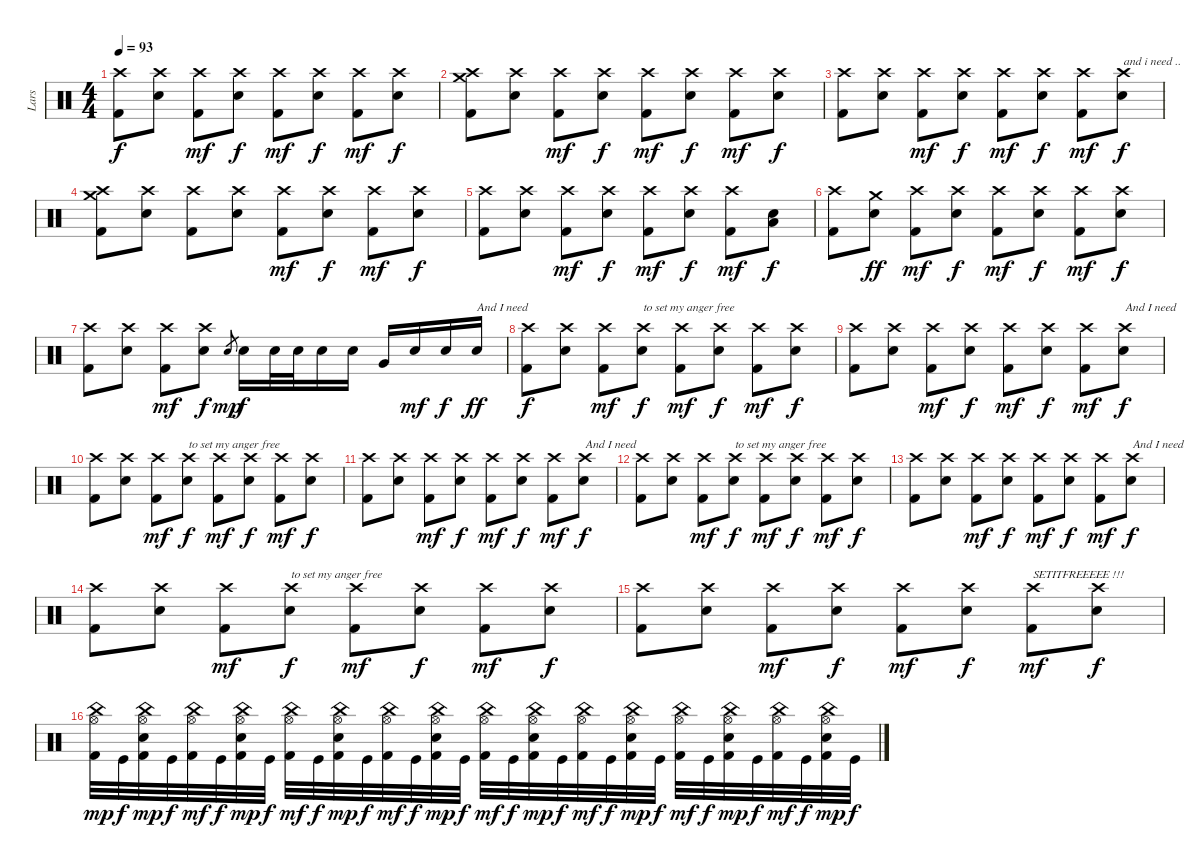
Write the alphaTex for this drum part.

\track ("Lars" "Lars") {instrument percussion}
\staff {score}
\articulation defaults
\ts (4 4)
\tempo 93
\clef neutral
\ks c
("Crash high (hit)" "Kick (hit) 2").8{dy f} ("Crash high (hit)" "Snare (hit) 2").8 ("Crash high (hit)" "Kick (hit) 2").8{dy mf} ("Crash high (hit)" "Snare (hit) 2").8{dy f} ("Crash high (hit)" "Kick (hit) 2").8{dy mf} ("Crash high (hit)" "Snare (hit) 2").8{dy f} ("Crash high (hit)" "Kick (hit) 2").8{dy mf} ("Crash high (hit)" "Snare (hit) 2").8{dy f} |
("Crash high (hit)" "Crash medium (hit)" "Kick (hit) 2").8 ("Crash high (hit)" "Snare (hit) 2").8 ("Crash high (hit)" "Kick (hit) 2").8{dy mf} ("Crash high (hit)" "Snare (hit) 2").8{dy f} ("Crash high (hit)" "Kick (hit) 2").8{dy mf} ("Crash high (hit)" "Snare (hit) 2").8{dy f} ("Crash high (hit)" "Kick (hit) 2").8{dy mf} ("Crash high (hit)" "Snare (hit) 2").8{dy f} |
("Crash high (hit)" "Kick (hit) 2").8 ("Crash high (hit)" "Snare (hit) 2").8 ("Crash high (hit)" "Kick (hit) 2").8{dy mf} ("Crash high (hit)" "Snare (hit) 2").8{dy f} ("Crash high (hit)" "Kick (hit) 2").8{dy mf} ("Crash high (hit)" "Snare (hit) 2").8{dy f} ("Crash high (hit)" "Kick (hit) 2").8{dy mf} ("Crash high (hit)" "Snare (hit) 2").8{txt "and i need .." dy f} |
("Crash high (hit)" "Crash medium (hit)" "Kick (hit) 2").8 ("Crash high (hit)" "Snare (hit) 2").8 ("Crash high (hit)" "Kick (hit) 2").8 ("Crash high (hit)" "Snare (hit) 2").8 ("Crash high (hit)" "Kick (hit) 2").8{dy mf} ("Crash high (hit)" "Snare (hit) 2").8{dy f} ("Crash high (hit)" "Kick (hit) 2").8{dy mf} ("Crash high (hit)" "Snare (hit) 2").8{dy f} |
("Crash high (hit)" "Kick (hit) 2").8 ("Crash high (hit)" "Snare (hit) 2").8 ("Crash high (hit)" "Kick (hit) 2").8{dy mf} ("Crash high (hit)" "Snare (hit) 2").8{dy f} ("Crash high (hit)" "Kick (hit) 2").8{dy mf} ("Crash high (hit)" "Snare (hit) 2").8{dy f} ("Crash high (hit)" "Kick (hit) 2").8{dy mf} ("Snare (hit) 2" "Low Floor Tom (hit)").8{dy f} |
("Crash high (hit)" "Kick (hit) 2").8 ("Crash medium (hit)" "Snare (hit) 2").8{dy ff} ("Crash high (hit)" "Kick (hit) 2").8{dy mf} ("Crash high (hit)" "Snare (hit) 2").8{dy f} ("Crash high (hit)" "Kick (hit) 2").8{dy mf} ("Crash high (hit)" "Snare (hit) 2").8{dy f} ("Crash high (hit)" "Kick (hit) 2").8{dy mf} ("Crash high (hit)" "Snare (hit) 2").8{dy f} |
("Crash high (hit)" "Kick (hit) 2").8 ("Crash high (hit)" "Snare (hit) 2").8 ("Crash high (hit)" "Kick (hit) 2").8{dy mf} ("Crash high (hit)" "Snare (hit) 2").8{dy f} "Snare (hit) 2".8{gr dy mp} "Snare (hit) 2".16{dy f} "Snare (hit) 2".32 "Snare (hit) 2".32 "Snare (hit) 2".16 "Snare (hit) 2".16 "Very Low Tom (hit)".16 "Snare (hit) 2".16{dy mf} "Snare (hit) 2".16{dy f} "Snare (hit) 2".16{txt "And I need" dy ff} |
("Crash high (hit)" "Kick (hit) 2").8{dy f} ("Crash high (hit)" "Snare (hit) 2").8 ("Crash high (hit)" "Kick (hit) 2").8{dy mf} ("Crash high (hit)" "Snare (hit) 2").8{txt "to set my anger free" dy f} ("Crash high (hit)" "Kick (hit) 2").8{dy mf} ("Crash high (hit)" "Snare (hit) 2").8{dy f} ("Crash high (hit)" "Kick (hit) 2").8{dy mf} ("Crash high (hit)" "Snare (hit) 2").8{dy f} |
("Crash high (hit)" "Kick (hit) 2").8 ("Crash high (hit)" "Snare (hit) 2").8 ("Crash high (hit)" "Kick (hit) 2").8{dy mf} ("Crash high (hit)" "Snare (hit) 2").8{dy f} ("Crash high (hit)" "Kick (hit) 2").8{dy mf} ("Crash high (hit)" "Snare (hit) 2").8{dy f} ("Crash high (hit)" "Kick (hit) 2").8{dy mf} ("Crash high (hit)" "Snare (hit) 2").8{txt "And I need" dy f} |
("Crash high (hit)" "Kick (hit) 2").8 ("Crash high (hit)" "Snare (hit) 2").8 ("Crash high (hit)" "Kick (hit) 2").8{dy mf} ("Crash high (hit)" "Snare (hit) 2").8{txt "to set my anger free" dy f} ("Crash high (hit)" "Kick (hit) 2").8{dy mf} ("Crash high (hit)" "Snare (hit) 2").8{dy f} ("Crash high (hit)" "Kick (hit) 2").8{dy mf} ("Crash high (hit)" "Snare (hit) 2").8{dy f} |
("Crash high (hit)" "Kick (hit) 2").8 ("Crash high (hit)" "Snare (hit) 2").8 ("Crash high (hit)" "Kick (hit) 2").8{dy mf} ("Crash high (hit)" "Snare (hit) 2").8{dy f} ("Crash high (hit)" "Kick (hit) 2").8{dy mf} ("Crash high (hit)" "Snare (hit) 2").8{dy f} ("Crash high (hit)" "Kick (hit) 2").8{dy mf} ("Crash high (hit)" "Snare (hit) 2").8{txt "And I need" dy f} |
("Crash high (hit)" "Kick (hit) 2").8 ("Crash high (hit)" "Snare (hit) 2").8 ("Crash high (hit)" "Kick (hit) 2").8{dy mf} ("Crash high (hit)" "Snare (hit) 2").8{txt "to set my anger free" dy f} ("Crash high (hit)" "Kick (hit) 2").8{dy mf} ("Crash high (hit)" "Snare (hit) 2").8{dy f} ("Crash high (hit)" "Kick (hit) 2").8{dy mf} ("Crash high (hit)" "Snare (hit) 2").8{dy f} |
("Crash high (hit)" "Kick (hit) 2").8 ("Crash high (hit)" "Snare (hit) 2").8 ("Crash high (hit)" "Kick (hit) 2").8{dy mf} ("Crash high (hit)" "Snare (hit) 2").8{dy f} ("Crash high (hit)" "Kick (hit) 2").8{dy mf} ("Crash high (hit)" "Snare (hit) 2").8{dy f} ("Crash high (hit)" "Kick (hit) 2").8{dy mf} ("Crash high (hit)" "Snare (hit) 2").8{txt "And I need" dy f} |
("Crash high (hit)" "Kick (hit) 2").8 ("Crash high (hit)" "Snare (hit) 2").8 ("Crash high (hit)" "Kick (hit) 2").8{dy mf} ("Crash high (hit)" "Snare (hit) 2").8{txt "to set my anger free" dy f} ("Crash high (hit)" "Kick (hit) 2").8{dy mf} ("Crash high (hit)" "Snare (hit) 2").8{dy f} ("Crash high (hit)" "Kick (hit) 2").8{dy mf} ("Crash high (hit)" "Snare (hit) 2").8{dy f} |
("Crash high (hit)" "Kick (hit) 2").8 ("Crash high (hit)" "Snare (hit) 2").8 ("Crash high (hit)" "Kick (hit) 2").8{dy mf} ("Crash high (hit)" "Snare (hit) 2").8{dy f} ("Crash high (hit)" "Kick (hit) 2").8{dy mf} ("Crash high (hit)" "Snare (hit) 2").8{dy f} ("Crash high (hit)" "Kick (hit) 2").8{txt "SETITFREEEEE !!!" dy mf} ("Crash high (hit)" "Snare (hit) 2").8{dy f} |
("Hi-Hat (open)" "China (hit)" "Kick (hit) 2").32{dy mp} "Kick (hit)".32{dy f} ("Hi-Hat (open)" "China (hit)" "Snare (hit) 2" "Kick (hit) 2").32{dy mp} "Kick (hit)".32{dy f} ("Hi-Hat (open)" "China (hit)" "Kick (hit) 2").32{dy mf} "Kick (hit)".32{dy f} ("Hi-Hat (open)" "China (hit)" "Snare (hit) 2" "Kick (hit) 2").32{dy mp} "Kick (hit)".32{dy f} ("Hi-Hat (open)" "China (hit)" "Kick (hit) 2").32{dy mf} "Kick (hit)".32{dy f} ("Hi-Hat (open)" "China (hit)" "Snare (hit) 2" "Kick (hit) 2").32{dy mp} "Kick (hit)".32{dy f} ("Hi-Hat (open)" "China (hit)" "Kick (hit) 2").32{dy mf} "Kick (hit)".32{dy f} ("Hi-Hat (open)" "China (hit)" "Snare (hit) 2" "Kick (hit) 2").32{dy mp} "Kick (hit)".32{dy f} ("Hi-Hat (open)" "China (hit)" "Kick (hit) 2").32{dy mf} "Kick (hit)".32{dy f} ("Hi-Hat (open)" "China (hit)" "Snare (hit) 2" "Kick (hit) 2").32{dy mp} "Kick (hit)".32{dy f} ("Hi-Hat (open)" "China (hit)" "Kick (hit) 2").32{dy mf} "Kick (hit)".32{dy f} ("Hi-Hat (open)" "China (hit)" "Snare (hit) 2" "Kick (hit) 2").32{dy mp} "Kick (hit)".32{dy f} ("Hi-Hat (open)" "China (hit)" "Kick (hit) 2").32{dy mf} "Kick (hit)".32{dy f} ("Hi-Hat (open)" "China (hit)" "Snare (hit) 2" "Kick (hit) 2").32{dy mp} "Kick (hit)".32{dy f} ("Hi-Hat (open)" "China (hit)" "Kick (hit) 2").32{dy mf} "Kick (hit)".32{dy f} ("Hi-Hat (open)" "China (hit)" "Snare (hit) 2" "Kick (hit) 2").32{dy mp} "Kick (hit)".32{dy f}
